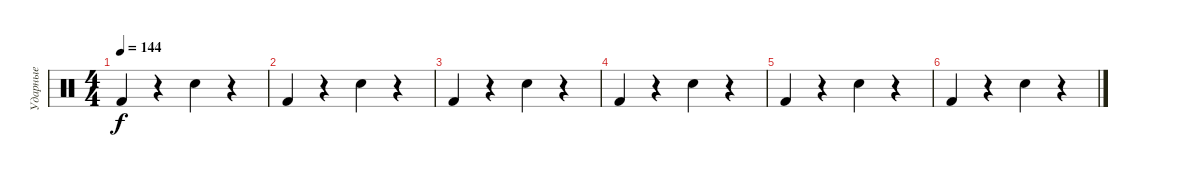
\track ("Ударные" "Ударные") {instrument percussion}
\staff {score}
\articulation defaults
\ts (4 4)
\tempo 144
\clef neutral
\ks c "Kick (hit) 2".4{dy f}
r.4 "Snare (hit) 2".4 r.4 |
"Kick (hit) 2".4 r.4 "Snare (hit) 2".4 r.4 |
"Kick (hit) 2".4 r.4 "Snare (hit) 2".4 r.4 |
"Kick (hit) 2".4 r.4 "Snare (hit) 2".4 r.4 |
"Kick (hit) 2".4 r.4 "Snare (hit) 2".4 r.4 |
"Kick (hit) 2".4 r.4 "Snare (hit) 2".4 r.4
